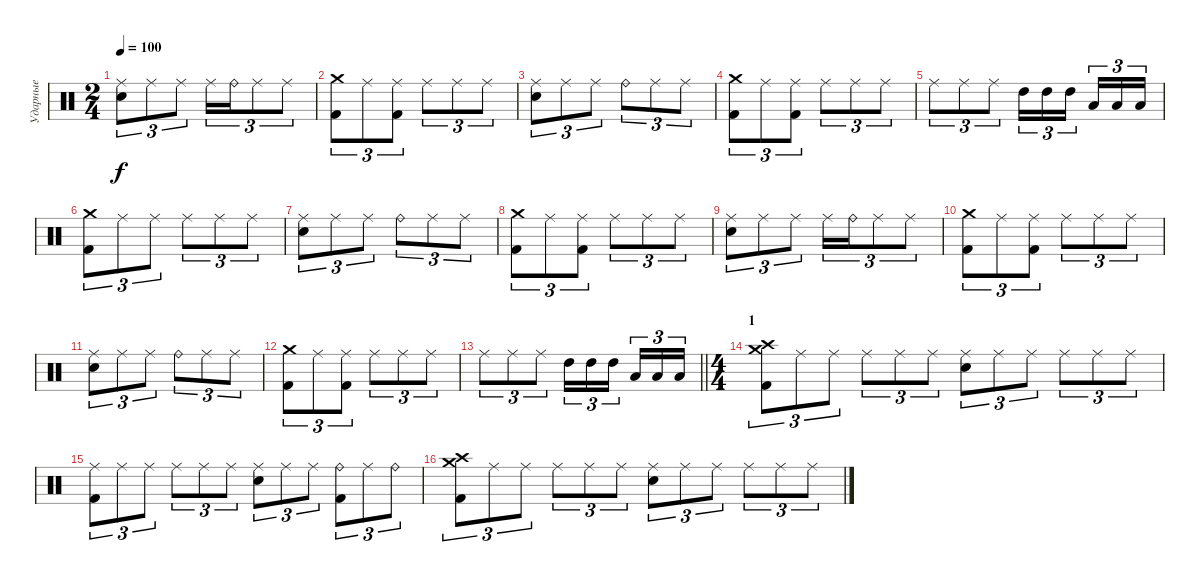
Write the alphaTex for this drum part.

\track ("Ударные" "Ударные") {instrument percussion}
\staff {score}
\articulation defaults
\ts (2 4)
\tempo 100
\clef neutral
\ks c
("Ride (middle)" "Electric Snare (hit)").8{tu (3 2) dy f} "Ride (middle)".8{tu (3 2)} "Ride (middle)".8{tu (3 2)} "Ride (middle)".16{tu (3 2)} "Ride (bell)".16{tu (3 2)} "Ride (middle)".8{tu (3 2)} "Ride (middle)".8{tu (3 2)} |
("Crash medium (hit)" "Kick (hit) 2").8{tu (3 2)} "Ride (middle)".8{tu (3 2)} ("Ride (middle)" "Kick (hit) 2").8{tu (3 2)} "Ride (middle)".8{tu (3 2)} "Ride (middle)".8{tu (3 2)} "Ride (middle)".8{tu (3 2)} |
("Ride (middle)" "Electric Snare (hit)").8{tu (3 2)} "Ride (middle)".8{tu (3 2)} "Ride (middle)".8{tu (3 2)} "Ride (bell)".8{tu (3 2)} "Ride (middle)".8{tu (3 2)} "Ride (middle)".8{tu (3 2)} |
("Crash medium (hit)" "Kick (hit) 2").8{tu (3 2)} "Ride (middle)".8{tu (3 2)} ("Ride (middle)" "Kick (hit) 2").8{tu (3 2)} "Ride (middle)".8{tu (3 2)} "Ride (middle)".8{tu (3 2)} "Ride (middle)".8{tu (3 2)} |
"Ride (middle)".8{tu (3 2)} "Ride (middle)".8{tu (3 2)} "Ride (middle)".8{tu (3 2)} "High Tom (hit)".16{tu (3 2)} "High Tom (hit)".16{tu (3 2)} "High Tom (hit)".16{tu (3 2) beam splitsecondary} "Low Tom (hit)".16{tu (3 2)} "Low Tom (hit)".16{tu (3 2)} "Low Tom (hit)".16{tu (3 2)} |
("Crash medium (hit)" "Kick (hit) 2").8{tu (3 2)} "Ride (middle)".8{tu (3 2)} "Ride (middle)".8{tu (3 2)} "Ride (middle)".8{tu (3 2)} "Ride (middle)".8{tu (3 2)} "Ride (middle)".8{tu (3 2)} |
("Ride (middle)" "Electric Snare (hit)").8{tu (3 2)} "Ride (middle)".8{tu (3 2)} "Ride (middle)".8{tu (3 2)} "Ride (bell)".8{tu (3 2)} "Ride (middle)".8{tu (3 2)} "Ride (middle)".8{tu (3 2)} |
("Crash medium (hit)" "Kick (hit) 2").8{tu (3 2)} "Ride (middle)".8{tu (3 2)} ("Ride (middle)" "Kick (hit) 2").8{tu (3 2)} "Ride (middle)".8{tu (3 2)} "Ride (middle)".8{tu (3 2)} "Ride (middle)".8{tu (3 2)} |
("Ride (middle)" "Electric Snare (hit)").8{tu (3 2)} "Ride (middle)".8{tu (3 2)} "Ride (middle)".8{tu (3 2)} "Ride (middle)".16{tu (3 2)} "Ride (bell)".16{tu (3 2)} "Ride (middle)".8{tu (3 2)} "Ride (middle)".8{tu (3 2)} |
("Crash medium (hit)" "Kick (hit) 2").8{tu (3 2)} "Ride (middle)".8{tu (3 2)} ("Ride (middle)" "Kick (hit) 2").8{tu (3 2)} "Ride (middle)".8{tu (3 2)} "Ride (middle)".8{tu (3 2)} "Ride (middle)".8{tu (3 2)} |
("Ride (middle)" "Electric Snare (hit)").8{tu (3 2)} "Ride (middle)".8{tu (3 2)} "Ride (middle)".8{tu (3 2)} "Ride (bell)".8{tu (3 2)} "Ride (middle)".8{tu (3 2)} "Ride (middle)".8{tu (3 2)} |
("Crash medium (hit)" "Kick (hit) 2").8{tu (3 2)} "Ride (middle)".8{tu (3 2)} ("Ride (middle)" "Kick (hit) 2").8{tu (3 2)} "Ride (middle)".8{tu (3 2)} "Ride (middle)".8{tu (3 2)} "Ride (middle)".8{tu (3 2)} |
\barLineRight lightlight "Ride (middle)".8{tu (3 2)} "Ride (middle)".8{tu (3 2)} "Ride (middle)".8{tu (3 2)} "High Tom (hit)".16{tu (3 2)} "High Tom (hit)".16{tu (3 2)} "High Tom (hit)".16{tu (3 2) beam splitsecondary} "Low Tom (hit)".16{tu (3 2)} "Low Tom (hit)".16{tu (3 2)} "Low Tom (hit)".16{tu (3 2)}
|
\ts (4 4)
\section ("" "1")
("Crash high (hit)" "Crash medium (hit)" "Kick (hit) 2").8{tu (3 2)} "Ride (middle)".8{tu (3 2)} "Ride (middle)".8{tu (3 2)} "Ride (middle)".8{tu (3 2)} "Ride (middle)".8{tu (3 2)} "Ride (middle)".8{tu (3 2)} ("Ride (middle)" "Electric Snare (hit)").8{tu (3 2)} "Ride (middle)".8{tu (3 2)} "Ride (middle)".8{tu (3 2)} "Ride (middle)".8{tu (3 2)} "Ride (middle)".8{tu (3 2)} "Ride (middle)".8{tu (3 2)} |
("Ride (middle)" "Kick (hit) 2").8{tu (3 2)} "Ride (middle)".8{tu (3 2)} "Ride (middle)".8{tu (3 2)} "Ride (middle)".8{tu (3 2)} "Ride (middle)".8{tu (3 2)} "Ride (middle)".8{tu (3 2)} ("Ride (middle)" "Electric Snare (hit)").8{tu (3 2)} "Ride (middle)".8{tu (3 2)} "Ride (middle)".8{tu (3 2)} ("Ride (bell)" "Kick (hit) 2").8{tu (3 2)} "Ride (middle)".8{tu (3 2)} "Ride (bell)".8{tu (3 2)} |
("Crash high (hit)" "Crash medium (hit)" "Kick (hit) 2").8{tu (3 2)} "Ride (middle)".8{tu (3 2)} "Ride (middle)".8{tu (3 2)} "Ride (middle)".8{tu (3 2)} "Ride (middle)".8{tu (3 2)} "Ride (middle)".8{tu (3 2)} ("Ride (middle)" "Electric Snare (hit)").8{tu (3 2)} "Ride (middle)".8{tu (3 2)} "Ride (middle)".8{tu (3 2)} "Ride (middle)".8{tu (3 2)} "Ride (middle)".8{tu (3 2)} "Ride (middle)".8{tu (3 2)}
